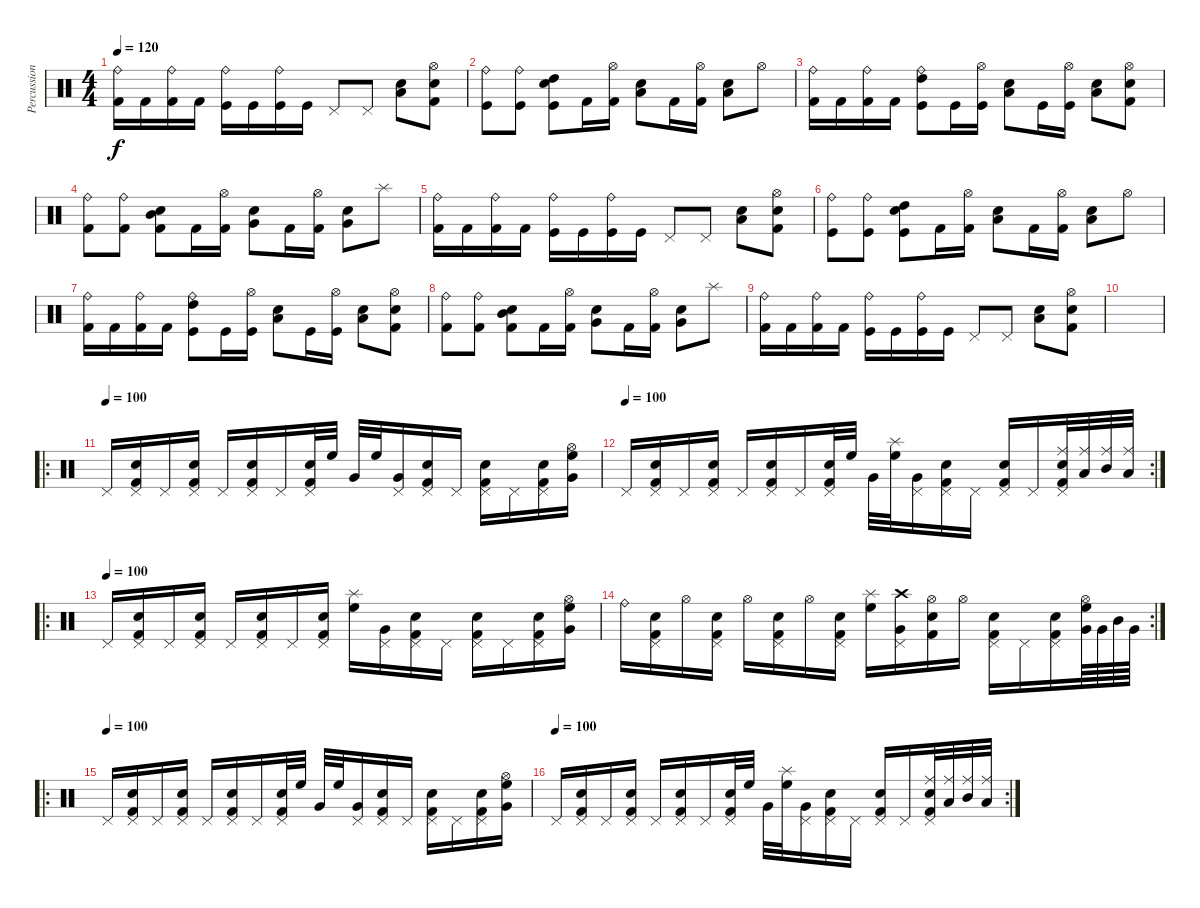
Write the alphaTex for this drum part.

\track ("Percussion" "Percussion") {instrument percussion}
\staff {score}
\articulation defaults
\ts (4 4)
\tempo 120
\clef neutral
\ks c
("Kick (hit) 2" "Ride (bell)").16{dy f} "Kick (hit) 2".16 ("Kick (hit) 2" "Ride (bell)").16 "Kick (hit) 2".16 ("Kick (hit)" "Ride (bell)").16 "Kick (hit)".16 ("Kick (hit)" "Ride (bell)").16 "Kick (hit)".16 "Pedal Hi-Hat (hit)".8 "Pedal Hi-Hat (hit)".8 ("Low Tom (hit)" "Electric Snare (hit)").8 ("Snare (hit) 2" "Kick (hit) 2" "Hi-Hat (open)").8 |
("Ride (bell)" "Kick (hit)").8 ("Ride (bell)" "Kick (hit)").8 ("High Tom (hit)" "Kick (hit)" "Electric Snare (hit)").8 "Kick (hit) 2".16 ("Hi-Hat (open)" "Kick (hit) 2").16 ("Low Tom (hit)" "Electric Snare (hit)").8 "Kick (hit) 2".16 ("Hi-Hat (open)" "Kick (hit) 2").16 ("Low Tom (hit)" "Electric Snare (hit)").8 "Hi-Hat (open)".8 |
("Kick (hit) 2" "Ride (bell)").16 "Kick (hit) 2".16 ("Kick (hit) 2" "Ride (bell)").16 "Kick (hit) 2".16 ("High Tom (hit)" "Kick (hit)" "Ride (bell)").8 "Kick (hit)".16 ("Kick (hit)" "Hi-Hat (open)").16 ("Low Tom (hit)" "Electric Snare (hit)").8 "Kick (hit)".16 ("Hi-Hat (open)" "Kick (hit)").16 ("Low Tom (hit)" "Electric Snare (hit)").8 ("Snare (hit) 2" "Kick (hit) 2" "Hi-Hat (open)").8 |
("Ride (bell)" "Kick (hit) 2").8 ("Ride (bell)" "Kick (hit) 2").8 ("Mid Tom (hit)" "Kick (hit) 2" "Electric Snare (hit)").8 "Kick (hit) 2".16 ("Hi-Hat (open)" "Kick (hit) 2").16 ("Very Low Tom (hit)" "Electric Snare (hit)").8 "Kick (hit) 2".16 ("Hi-Hat (open)" "Kick (hit) 2").16 ("Very Low Tom (hit)" "Snare (hit) 2").8 "Splash (hit)".8 |
("Kick (hit) 2" "Ride (bell)").16 "Kick (hit) 2".16 ("Kick (hit) 2" "Ride (bell)").16 "Kick (hit) 2".16 ("Kick (hit)" "Ride (bell)").16 "Kick (hit)".16 ("Kick (hit)" "Ride (bell)").16 "Kick (hit)".16 "Pedal Hi-Hat (hit)".8 "Pedal Hi-Hat (hit)".8 ("Low Tom (hit)" "Electric Snare (hit)").8 ("Snare (hit) 2" "Kick (hit) 2" "Hi-Hat (open)").8 |
("Ride (bell)" "Kick (hit)").8 ("Ride (bell)" "Kick (hit)").8 ("High Tom (hit)" "Kick (hit)" "Electric Snare (hit)").8 "Kick (hit) 2".16 ("Hi-Hat (open)" "Kick (hit) 2").16 ("Low Tom (hit)" "Electric Snare (hit)").8 "Kick (hit) 2".16 ("Hi-Hat (open)" "Kick (hit) 2").16 ("Low Tom (hit)" "Electric Snare (hit)").8 "Hi-Hat (open)".8 |
("Kick (hit) 2" "Ride (bell)").16 "Kick (hit) 2".16 ("Kick (hit) 2" "Ride (bell)").16 "Kick (hit) 2".16 ("High Tom (hit)" "Kick (hit)" "Ride (bell)").8 "Kick (hit)".16 ("Kick (hit)" "Hi-Hat (open)").16 ("Low Tom (hit)" "Electric Snare (hit)").8 "Kick (hit)".16 ("Hi-Hat (open)" "Kick (hit)").16 ("Low Tom (hit)" "Electric Snare (hit)").8 ("Snare (hit) 2" "Kick (hit) 2" "Hi-Hat (open)").8 |
("Ride (bell)" "Kick (hit) 2").8 ("Ride (bell)" "Kick (hit) 2").8 ("Mid Tom (hit)" "Kick (hit) 2" "Electric Snare (hit)").8 "Kick (hit) 2".16 ("Hi-Hat (open)" "Kick (hit) 2").16 ("Very Low Tom (hit)" "Electric Snare (hit)").8 "Kick (hit) 2".16 ("Hi-Hat (open)" "Kick (hit) 2").16 ("Very Low Tom (hit)" "Snare (hit) 2").8 "Splash (hit)".8 |
("Kick (hit) 2" "Ride (bell)").16 "Kick (hit) 2".16 ("Kick (hit) 2" "Ride (bell)").16 "Kick (hit) 2".16 ("Kick (hit)" "Ride (bell)").16 "Kick (hit)".16 ("Kick (hit)" "Ride (bell)").16 "Kick (hit)".16 "Pedal Hi-Hat (hit)".8 "Pedal Hi-Hat (hit)".8 ("Low Tom (hit)" "Electric Snare (hit)").8 ("Snare (hit) 2" "Kick (hit) 2" "Hi-Hat (open)").8 |
|
\ro
\tempo (100)
"Pedal Hi-Hat (hit)".16 ("Electric Snare (hit)" "Pedal Hi-Hat (hit)" "Kick (hit) 2").16 "Pedal Hi-Hat (hit)".16 ("Snare (hit) 2" "Pedal Hi-Hat (hit)" "Kick (hit) 2").16 "Pedal Hi-Hat (hit)".16 ("Electric Snare (hit)" "Pedal Hi-Hat (hit)" "Kick (hit) 2").16 "Pedal Hi-Hat (hit)".16 ("Snare (hit) 2" "Pedal Hi-Hat (hit)" "Kick (hit) 2").32 "High Floor Tom (hit)".32 "Very Low Tom (hit)".32 "High Floor Tom (hit)".32 ("Pedal Hi-Hat (hit)" "Very Low Tom (hit)").16 ("Electric Snare (hit)" "Pedal Hi-Hat (hit)" "Kick (hit) 2").16 "Pedal Hi-Hat (hit)".16 ("Electric Snare (hit)" "Pedal Hi-Hat (hit)" "Kick (hit) 2").16 "Pedal Hi-Hat (hit)".16 ("Electric Snare (hit)" "Pedal Hi-Hat (hit)" "Kick (hit) 2").16 ("High Floor Tom (hit)" "Very Low Tom (hit)" "Hi-Hat (open)").16 |
\rc 2
\tempo (100)
"Pedal Hi-Hat (hit)".16 ("Electric Snare (hit)" "Pedal Hi-Hat (hit)" "Kick (hit) 2").16 "Pedal Hi-Hat (hit)".16 ("Snare (hit) 2" "Pedal Hi-Hat (hit)" "Kick (hit) 2").16 "Pedal Hi-Hat (hit)".16 ("Electric Snare (hit)" "Pedal Hi-Hat (hit)" "Kick (hit) 2").16 "Pedal Hi-Hat (hit)".16 ("Snare (hit) 2" "Pedal Hi-Hat (hit)" "Kick (hit) 2").32 "High Floor Tom (hit)".32 "Very Low Tom (hit)".32 ("Splash (hit)" "High Floor Tom (hit)").32 ("Pedal Hi-Hat (hit)" "Very Low Tom (hit)").16 ("Electric Snare (hit)" "Pedal Hi-Hat (hit)" "Kick (hit) 2").16 "Pedal Hi-Hat (hit)".16 ("Electric Snare (hit)" "Pedal Hi-Hat (hit)" "Kick (hit) 2").16 "Pedal Hi-Hat (hit)".16 ("Ride (middle)" "Electric Snare (hit)" "Pedal Hi-Hat (hit)" "Kick (hit) 2").32 ("Ride (middle)" "Low Tom (hit)").32 ("Ride (middle)" "Mid Tom (hit)").32 ("Ride (middle)" "Low Tom (hit)").32 |
\ro
\tempo (100)
"Pedal Hi-Hat (hit)".16 ("Electric Snare (hit)" "Pedal Hi-Hat (hit)" "Kick (hit) 2").16 "Pedal Hi-Hat (hit)".16 ("Snare (hit) 2" "Pedal Hi-Hat (hit)" "Kick (hit) 2").16 "Pedal Hi-Hat (hit)".16 ("Electric Snare (hit)" "Pedal Hi-Hat (hit)" "Kick (hit) 2").16 "Pedal Hi-Hat (hit)".16 ("Snare (hit) 2" "Pedal Hi-Hat (hit)" "Kick (hit) 2").16 ("Splash (hit)" "High Floor Tom (hit)").16 ("Pedal Hi-Hat (hit)" "Very Low Tom (hit)").16 ("Electric Snare (hit)" "Pedal Hi-Hat (hit)" "Kick (hit) 2").16 "Pedal Hi-Hat (hit)".16 ("Electric Snare (hit)" "Pedal Hi-Hat (hit)" "Kick (hit) 2").16 "Pedal Hi-Hat (hit)".16 ("Electric Snare (hit)" "Pedal Hi-Hat (hit)" "Kick (hit) 2").16 ("High Floor Tom (hit)" "Very Low Tom (hit)" "Hi-Hat (open)").16 |
\rc 2 "Ride (bell)".16
("Electric Snare (hit)" "Pedal Hi-Hat (hit)" "Kick (hit) 2").16 "Hi-Hat (open)".16 ("Snare (hit) 2" "Pedal Hi-Hat (hit)" "Kick (hit) 2").16 "Hi-Hat (open)".16 ("Electric Snare (hit)" "Pedal Hi-Hat (hit)" "Kick (hit) 2").16 "Hi-Hat (open)".16 ("Snare (hit) 2" "Pedal Hi-Hat (hit)" "Kick (hit) 2").16 ("Splash (hit)" "High Floor Tom (hit)").16 ("Crash high (hit)" "Pedal Hi-Hat (hit)" "Very Low Tom (hit)").16 ("Hi-Hat (open)" "Electric Snare (hit)" "Kick (hit) 2").16 "Hi-Hat (open)".16 ("Electric Snare (hit)" "Pedal Hi-Hat (hit)" "Kick (hit) 2").16 "Pedal Hi-Hat (hit)".16 ("Electric Snare (hit)" "Pedal Hi-Hat (hit)" "Kick (hit) 2").16 ("High Floor Tom (hit)" "Very Low Tom (hit)" "Hi-Hat (open)").64 "Very Low Tom (hit)".64 "Mid Tom (hit)".64 "Very Low Tom (hit)".64 |
\ro
\tempo (100)
"Pedal Hi-Hat (hit)".16 ("Electric Snare (hit)" "Pedal Hi-Hat (hit)" "Kick (hit) 2").16 "Pedal Hi-Hat (hit)".16 ("Snare (hit) 2" "Pedal Hi-Hat (hit)" "Kick (hit) 2").16 "Pedal Hi-Hat (hit)".16 ("Electric Snare (hit)" "Pedal Hi-Hat (hit)" "Kick (hit) 2").16 "Pedal Hi-Hat (hit)".16 ("Snare (hit) 2" "Pedal Hi-Hat (hit)" "Kick (hit) 2").32 "High Floor Tom (hit)".32 "Very Low Tom (hit)".32 "High Floor Tom (hit)".32 ("Pedal Hi-Hat (hit)" "Very Low Tom (hit)").16 ("Electric Snare (hit)" "Pedal Hi-Hat (hit)" "Kick (hit) 2").16 "Pedal Hi-Hat (hit)".16 ("Electric Snare (hit)" "Pedal Hi-Hat (hit)" "Kick (hit) 2").16 "Pedal Hi-Hat (hit)".16 ("Electric Snare (hit)" "Pedal Hi-Hat (hit)" "Kick (hit) 2").16 ("High Floor Tom (hit)" "Very Low Tom (hit)" "Hi-Hat (open)").16 |
\rc 2
\tempo (100)
"Pedal Hi-Hat (hit)".16 ("Electric Snare (hit)" "Pedal Hi-Hat (hit)" "Kick (hit) 2").16 "Pedal Hi-Hat (hit)".16 ("Snare (hit) 2" "Pedal Hi-Hat (hit)" "Kick (hit) 2").16 "Pedal Hi-Hat (hit)".16 ("Electric Snare (hit)" "Pedal Hi-Hat (hit)" "Kick (hit) 2").16 "Pedal Hi-Hat (hit)".16 ("Snare (hit) 2" "Pedal Hi-Hat (hit)" "Kick (hit) 2").32 "High Floor Tom (hit)".32 "Very Low Tom (hit)".32 ("Splash (hit)" "High Floor Tom (hit)").32 ("Pedal Hi-Hat (hit)" "Very Low Tom (hit)").16 ("Electric Snare (hit)" "Pedal Hi-Hat (hit)" "Kick (hit) 2").16 "Pedal Hi-Hat (hit)".16 ("Electric Snare (hit)" "Pedal Hi-Hat (hit)" "Kick (hit) 2").16 "Pedal Hi-Hat (hit)".16 ("Ride (middle)" "Electric Snare (hit)" "Pedal Hi-Hat (hit)" "Kick (hit) 2").32 ("Ride (middle)" "Low Tom (hit)").32 ("Ride (middle)" "Mid Tom (hit)").32 ("Ride (middle)" "Low Tom (hit)").32
